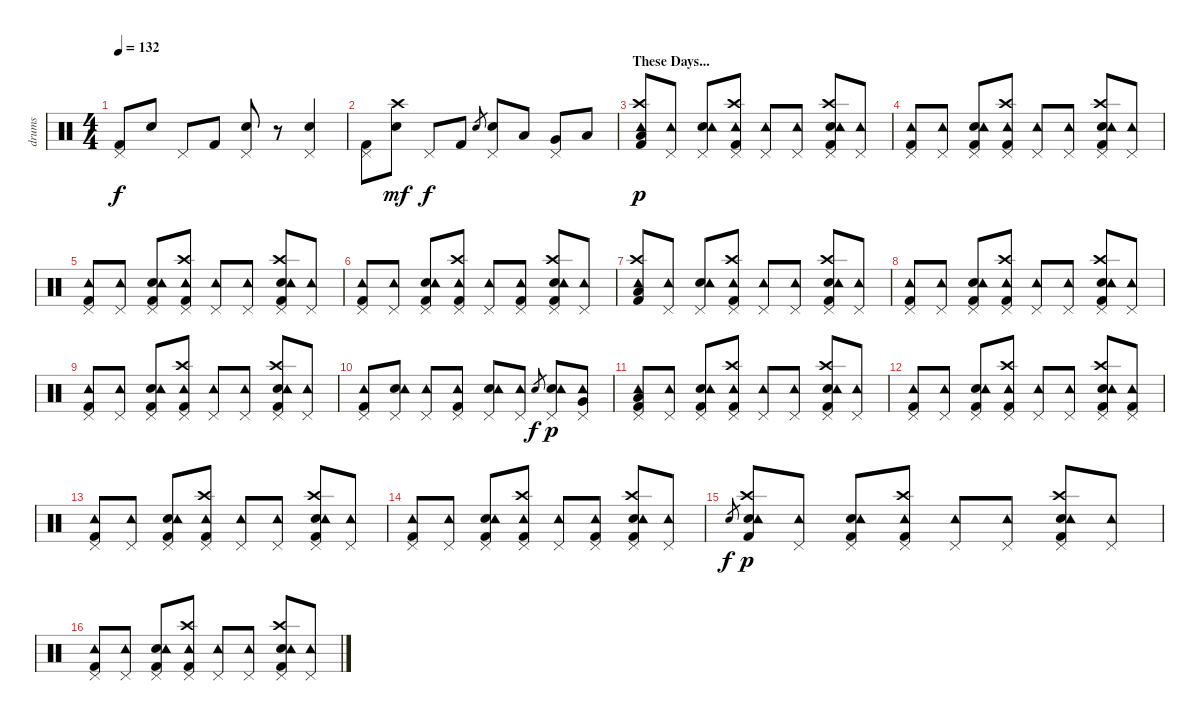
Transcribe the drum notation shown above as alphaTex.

\track ("drums" "drums") {instrument percussion}
\staff {score}
\articulation defaults
\ts (4 4)
\tempo 132
\clef neutral
\ks c
("Kick (hit) 2" "Pedal Hi-Hat (hit)").8{dy f} "Electric Snare (hit)".8 "Pedal Hi-Hat (hit)".8 "Kick (hit) 2".8 ("Electric Snare (hit)" "Pedal Hi-Hat (hit)").8 r.8 ("Electric Snare (hit)" "Pedal Hi-Hat (hit)").4 |
("Kick (hit) 2" "Pedal Hi-Hat (hit)").8 ("Electric Snare (hit)" "Crash high (hit)").8{dy mf} "Pedal Hi-Hat (hit)".8{dy f} "Kick (hit) 2".8 "Electric Snare (hit)".8{gr} ("Electric Snare (hit)" "Pedal Hi-Hat (hit)").8 "Low Tom (hit)".8 ("Very Low Tom (hit)" "Pedal Hi-Hat (hit)").8 "Low Floor Tom (hit)".8 |
\section ("" "These Days...")
("Low Floor Tom (hit)" "Kick (hit) 2" "Crash high (hit)" "Tambourine (hit)").8{dy p} ("Pedal Hi-Hat (hit)" "Tambourine (hit)").8 ("Electric Snare (hit)" "Pedal Hi-Hat (hit)" "Tambourine (hit)").8 ("Crash high (hit)" "Kick (hit) 2" "Pedal Hi-Hat (hit)" "Tambourine (hit)").8 ("Pedal Hi-Hat (hit)" "Tambourine (hit)").8 ("Pedal Hi-Hat (hit)" "Tambourine (hit)").8 ("Electric Snare (hit)" "Crash high (hit)" "Kick (hit) 2" "Pedal Hi-Hat (hit)" "Tambourine (hit)").8 ("Pedal Hi-Hat (hit)" "Tambourine (hit)").8 |
("Kick (hit) 2" "Pedal Hi-Hat (hit)" "Tambourine (hit)").8 ("Pedal Hi-Hat (hit)" "Tambourine (hit)").8 ("Electric Snare (hit)" "Kick (hit) 2" "Pedal Hi-Hat (hit)" "Tambourine (hit)").8 ("Crash high (hit)" "Kick (hit) 2" "Pedal Hi-Hat (hit)" "Tambourine (hit)").8 ("Pedal Hi-Hat (hit)" "Tambourine (hit)").8 ("Pedal Hi-Hat (hit)" "Tambourine (hit)").8 ("Electric Snare (hit)" "Crash high (hit)" "Kick (hit) 2" "Pedal Hi-Hat (hit)" "Tambourine (hit)").8 ("Pedal Hi-Hat (hit)" "Tambourine (hit)").8 |
("Kick (hit) 2" "Pedal Hi-Hat (hit)" "Tambourine (hit)").8 ("Pedal Hi-Hat (hit)" "Tambourine (hit)").8 ("Electric Snare (hit)" "Kick (hit) 2" "Pedal Hi-Hat (hit)" "Tambourine (hit)").8 ("Crash high (hit)" "Kick (hit) 2" "Pedal Hi-Hat (hit)" "Tambourine (hit)").8 ("Pedal Hi-Hat (hit)" "Tambourine (hit)").8 ("Pedal Hi-Hat (hit)" "Tambourine (hit)").8 ("Electric Snare (hit)" "Crash high (hit)" "Kick (hit) 2" "Pedal Hi-Hat (hit)" "Tambourine (hit)").8 ("Pedal Hi-Hat (hit)" "Tambourine (hit)").8 |
("Kick (hit) 2" "Pedal Hi-Hat (hit)" "Tambourine (hit)").8 ("Pedal Hi-Hat (hit)" "Tambourine (hit)").8 ("Electric Snare (hit)" "Kick (hit) 2" "Pedal Hi-Hat (hit)" "Tambourine (hit)").8 ("Crash high (hit)" "Kick (hit) 2" "Pedal Hi-Hat (hit)" "Tambourine (hit)").8 ("Pedal Hi-Hat (hit)" "Tambourine (hit)").8 ("Kick (hit) 2" "Pedal Hi-Hat (hit)" "Tambourine (hit)").8 ("Electric Snare (hit)" "Crash high (hit)" "Kick (hit) 2" "Pedal Hi-Hat (hit)" "Tambourine (hit)").8 ("Pedal Hi-Hat (hit)" "Tambourine (hit)").8 |
("Low Floor Tom (hit)" "Kick (hit) 2" "Crash high (hit)" "Tambourine (hit)").8 ("Pedal Hi-Hat (hit)" "Tambourine (hit)").8 ("Electric Snare (hit)" "Pedal Hi-Hat (hit)" "Tambourine (hit)").8 ("Crash high (hit)" "Kick (hit) 2" "Pedal Hi-Hat (hit)" "Tambourine (hit)").8 ("Pedal Hi-Hat (hit)" "Tambourine (hit)").8 ("Pedal Hi-Hat (hit)" "Tambourine (hit)").8 ("Electric Snare (hit)" "Crash high (hit)" "Kick (hit) 2" "Pedal Hi-Hat (hit)" "Tambourine (hit)").8 ("Pedal Hi-Hat (hit)" "Tambourine (hit)").8 |
("Kick (hit) 2" "Pedal Hi-Hat (hit)" "Tambourine (hit)").8 ("Pedal Hi-Hat (hit)" "Tambourine (hit)").8 ("Electric Snare (hit)" "Kick (hit) 2" "Pedal Hi-Hat (hit)" "Tambourine (hit)").8 ("Crash high (hit)" "Kick (hit) 2" "Pedal Hi-Hat (hit)" "Tambourine (hit)").8 ("Pedal Hi-Hat (hit)" "Tambourine (hit)").8 ("Pedal Hi-Hat (hit)" "Tambourine (hit)").8 ("Electric Snare (hit)" "Crash high (hit)" "Kick (hit) 2" "Pedal Hi-Hat (hit)" "Tambourine (hit)").8 ("Pedal Hi-Hat (hit)" "Tambourine (hit)").8 |
("Kick (hit) 2" "Pedal Hi-Hat (hit)" "Tambourine (hit)").8 ("Pedal Hi-Hat (hit)" "Tambourine (hit)").8 ("Electric Snare (hit)" "Kick (hit) 2" "Pedal Hi-Hat (hit)" "Tambourine (hit)").8 ("Crash high (hit)" "Kick (hit) 2" "Pedal Hi-Hat (hit)" "Tambourine (hit)").8 ("Pedal Hi-Hat (hit)" "Tambourine (hit)").8 ("Pedal Hi-Hat (hit)" "Tambourine (hit)").8 ("Electric Snare (hit)" "Crash high (hit)" "Kick (hit) 2" "Pedal Hi-Hat (hit)" "Tambourine (hit)").8 ("Pedal Hi-Hat (hit)" "Tambourine (hit)").8 |
("Kick (hit) 2" "Pedal Hi-Hat (hit)" "Tambourine (hit)").8 ("Electric Snare (hit)" "Pedal Hi-Hat (hit)" "Tambourine (hit)").8 ("Pedal Hi-Hat (hit)" "Tambourine (hit)").8 ("Kick (hit) 2" "Pedal Hi-Hat (hit)" "Tambourine (hit)").8 ("Electric Snare (hit)" "Pedal Hi-Hat (hit)" "Tambourine (hit)").8 ("Pedal Hi-Hat (hit)" "Tambourine (hit)").8 "Electric Snare (hit)".8{gr dy f} ("Electric Snare (hit)" "Pedal Hi-Hat (hit)" "Tambourine (hit)").8{dy p} ("Very Low Tom (hit)" "Pedal Hi-Hat (hit)" "Tambourine (hit)").8 |
("Low Floor Tom (hit)" "Kick (hit) 2" "Pedal Hi-Hat (hit)" "Tambourine (hit)").8 ("Pedal Hi-Hat (hit)" "Tambourine (hit)").8 ("Electric Snare (hit)" "Kick (hit) 2" "Pedal Hi-Hat (hit)" "Tambourine (hit)").8 ("Crash high (hit)" "Kick (hit) 2" "Pedal Hi-Hat (hit)" "Tambourine (hit)").8 ("Pedal Hi-Hat (hit)" "Tambourine (hit)").8 ("Pedal Hi-Hat (hit)" "Tambourine (hit)").8 ("Electric Snare (hit)" "Crash high (hit)" "Kick (hit) 2" "Pedal Hi-Hat (hit)" "Tambourine (hit)").8 ("Pedal Hi-Hat (hit)" "Tambourine (hit)").8 |
("Kick (hit) 2" "Pedal Hi-Hat (hit)" "Tambourine (hit)").8 ("Pedal Hi-Hat (hit)" "Tambourine (hit)").8 ("Electric Snare (hit)" "Kick (hit) 2" "Pedal Hi-Hat (hit)" "Tambourine (hit)").8 ("Crash high (hit)" "Kick (hit) 2" "Pedal Hi-Hat (hit)" "Tambourine (hit)").8 ("Pedal Hi-Hat (hit)" "Tambourine (hit)").8 ("Pedal Hi-Hat (hit)" "Tambourine (hit)").8 ("Electric Snare (hit)" "Crash high (hit)" "Kick (hit) 2" "Pedal Hi-Hat (hit)" "Tambourine (hit)").8 ("Kick (hit) 2" "Pedal Hi-Hat (hit)" "Tambourine (hit)").8 |
("Kick (hit) 2" "Pedal Hi-Hat (hit)" "Tambourine (hit)").8 ("Pedal Hi-Hat (hit)" "Tambourine (hit)").8 ("Electric Snare (hit)" "Kick (hit) 2" "Pedal Hi-Hat (hit)" "Tambourine (hit)").8 ("Crash high (hit)" "Kick (hit) 2" "Pedal Hi-Hat (hit)" "Tambourine (hit)").8 ("Pedal Hi-Hat (hit)" "Tambourine (hit)").8 ("Pedal Hi-Hat (hit)" "Tambourine (hit)").8 ("Electric Snare (hit)" "Crash high (hit)" "Kick (hit) 2" "Pedal Hi-Hat (hit)" "Tambourine (hit)").8 ("Pedal Hi-Hat (hit)" "Tambourine (hit)").8 |
("Kick (hit) 2" "Pedal Hi-Hat (hit)" "Tambourine (hit)").8 ("Pedal Hi-Hat (hit)" "Tambourine (hit)").8 ("Electric Snare (hit)" "Kick (hit) 2" "Pedal Hi-Hat (hit)" "Tambourine (hit)").8 ("Crash high (hit)" "Kick (hit) 2" "Pedal Hi-Hat (hit)" "Tambourine (hit)").8 ("Pedal Hi-Hat (hit)" "Tambourine (hit)").8 ("Kick (hit) 2" "Pedal Hi-Hat (hit)" "Tambourine (hit)").8 ("Electric Snare (hit)" "Crash high (hit)" "Kick (hit) 2" "Pedal Hi-Hat (hit)" "Tambourine (hit)").8 ("Pedal Hi-Hat (hit)" "Tambourine (hit)").8 |
"Electric Snare (hit)".8{gr dy f} ("Electric Snare (hit)" "Kick (hit) 2" "Crash high (hit)" "Tambourine (hit)").8{dy p} ("Pedal Hi-Hat (hit)" "Tambourine (hit)").8 ("Electric Snare (hit)" "Kick (hit) 2" "Pedal Hi-Hat (hit)" "Tambourine (hit)").8 ("Crash high (hit)" "Kick (hit) 2" "Pedal Hi-Hat (hit)" "Tambourine (hit)").8 ("Pedal Hi-Hat (hit)" "Tambourine (hit)").8 ("Pedal Hi-Hat (hit)" "Tambourine (hit)").8 ("Electric Snare (hit)" "Crash high (hit)" "Kick (hit) 2" "Pedal Hi-Hat (hit)" "Tambourine (hit)").8 ("Pedal Hi-Hat (hit)" "Tambourine (hit)").8 |
("Kick (hit) 2" "Pedal Hi-Hat (hit)" "Tambourine (hit)").8 ("Pedal Hi-Hat (hit)" "Tambourine (hit)").8 ("Electric Snare (hit)" "Kick (hit) 2" "Pedal Hi-Hat (hit)" "Tambourine (hit)").8 ("Crash high (hit)" "Kick (hit) 2" "Pedal Hi-Hat (hit)" "Tambourine (hit)").8 ("Pedal Hi-Hat (hit)" "Tambourine (hit)").8 ("Pedal Hi-Hat (hit)" "Tambourine (hit)").8 ("Electric Snare (hit)" "Crash high (hit)" "Kick (hit) 2" "Pedal Hi-Hat (hit)" "Tambourine (hit)").8 ("Pedal Hi-Hat (hit)" "Tambourine (hit)").8
